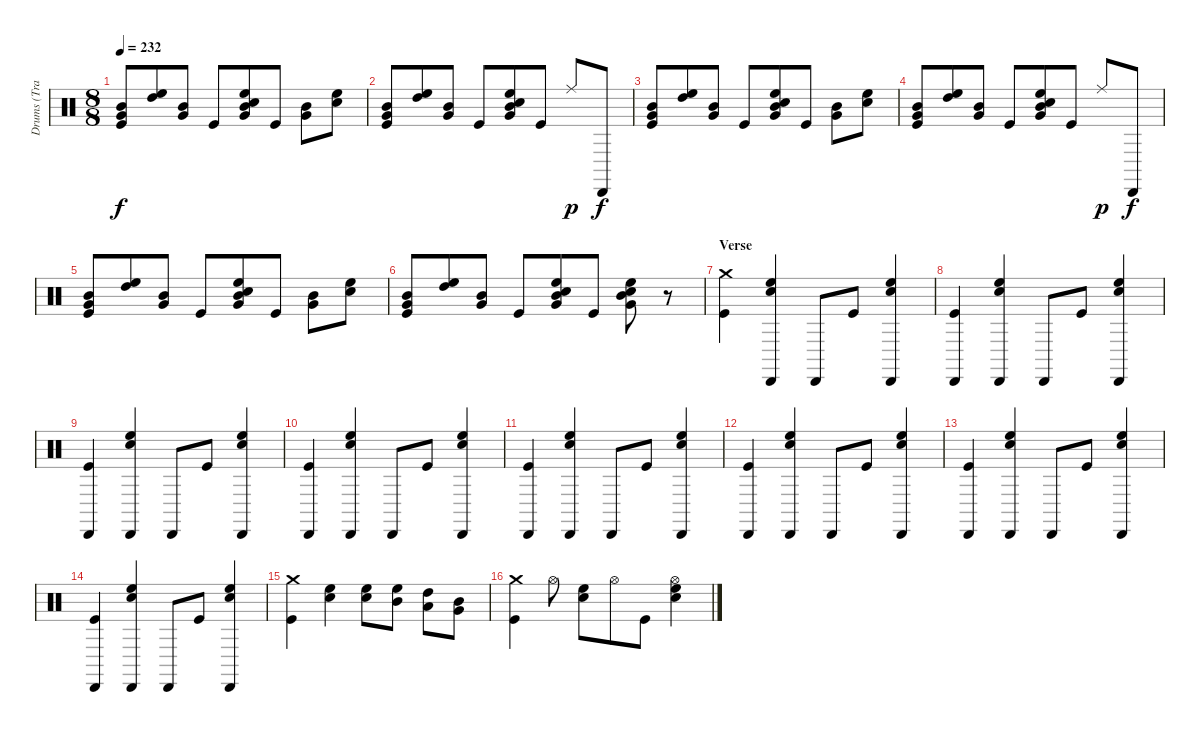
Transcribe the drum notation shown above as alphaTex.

\track ("Drums (Travis)" "Drums (Tra") {instrument percussion}
\staff {score}
\articulation defaults
\ts (8 8)
\tempo 232
\clef neutral
\ks c
("Mid Tom (hit)" "Very Low Tom (hit)" "Kick (hit)").8{dy f} ("High Tom (hit)" "High Floor Tom (hit)").8 ("Very Low Tom (hit)" "Mid Tom (hit)").8 "Kick (hit)".8 ("Mid Tom (hit)" "Very Low Tom (hit)" "High Floor Tom (hit)" "Electric Snare (hit)").8 "Kick (hit)".8 ("Mid Tom (hit)" "Very Low Tom (hit)").8 ("High Floor Tom (hit)" "Electric Snare (hit)").8 |
("Mid Tom (hit)" "Very Low Tom (hit)" "Kick (hit)").8 ("High Tom (hit)" "High Floor Tom (hit)").8 ("Very Low Tom (hit)" "Mid Tom (hit)").8 "Kick (hit)".8 ("Mid Tom (hit)" "Very Low Tom (hit)" "High Floor Tom (hit)" "Electric Snare (hit)").8 "Kick (hit)".8 "Ride (middle)".8{dy p} "Cabasa (hit)".8{dy f} |
("Mid Tom (hit)" "Very Low Tom (hit)" "Kick (hit)").8 ("High Tom (hit)" "High Floor Tom (hit)").8 ("Very Low Tom (hit)" "Mid Tom (hit)").8 "Kick (hit)".8 ("Mid Tom (hit)" "Very Low Tom (hit)" "High Floor Tom (hit)" "Electric Snare (hit)").8 "Kick (hit)".8 ("Mid Tom (hit)" "Very Low Tom (hit)").8 ("High Floor Tom (hit)" "Electric Snare (hit)").8 |
("Mid Tom (hit)" "Very Low Tom (hit)" "Kick (hit)").8 ("High Tom (hit)" "High Floor Tom (hit)").8 ("Very Low Tom (hit)" "Mid Tom (hit)").8 "Kick (hit)".8 ("Mid Tom (hit)" "Very Low Tom (hit)" "High Floor Tom (hit)" "Electric Snare (hit)").8 "Kick (hit)".8 "Ride (middle)".8{dy p} "Cabasa (hit)".8{dy f} |
("Mid Tom (hit)" "Very Low Tom (hit)" "Kick (hit)").8 ("High Tom (hit)" "High Floor Tom (hit)").8 ("Very Low Tom (hit)" "Mid Tom (hit)").8 "Kick (hit)".8 ("Mid Tom (hit)" "Very Low Tom (hit)" "High Floor Tom (hit)" "Electric Snare (hit)").8 "Kick (hit)".8 ("Mid Tom (hit)" "Very Low Tom (hit)").8 ("High Floor Tom (hit)" "Electric Snare (hit)").8 |
("Mid Tom (hit)" "Very Low Tom (hit)" "Kick (hit)").8 ("High Tom (hit)" "High Floor Tom (hit)").8 ("Very Low Tom (hit)" "Mid Tom (hit)").8 "Kick (hit)".8 ("Mid Tom (hit)" "Very Low Tom (hit)" "High Floor Tom (hit)" "Electric Snare (hit)").8 "Kick (hit)".8 ("Mid Tom (hit)" "Very Low Tom (hit)" "High Floor Tom (hit)" "Electric Snare (hit)").8 r.8 |
\section ("" "Verse")
("Crash medium (hit)" "Kick (hit)").4 ("Electric Snare (hit)" "High Floor Tom (hit)" "Cabasa (hit)").4 "Cabasa (hit)".8 "Kick (hit)".8 ("High Floor Tom (hit)" "Electric Snare (hit)" "Cabasa (hit)").4 |
("Kick (hit)" "Cabasa (hit)").4 ("Electric Snare (hit)" "High Floor Tom (hit)" "Cabasa (hit)").4 "Cabasa (hit)".8 "Kick (hit)".8 ("High Floor Tom (hit)" "Electric Snare (hit)" "Cabasa (hit)").4 |
("Kick (hit)" "Cabasa (hit)").4 ("Electric Snare (hit)" "High Floor Tom (hit)" "Cabasa (hit)").4 "Cabasa (hit)".8 "Kick (hit)".8 ("High Floor Tom (hit)" "Electric Snare (hit)" "Cabasa (hit)").4 |
("Kick (hit)" "Cabasa (hit)").4 ("Electric Snare (hit)" "High Floor Tom (hit)" "Cabasa (hit)").4 "Cabasa (hit)".8 "Kick (hit)".8 ("High Floor Tom (hit)" "Electric Snare (hit)" "Cabasa (hit)").4 |
("Kick (hit)" "Cabasa (hit)").4 ("Electric Snare (hit)" "High Floor Tom (hit)" "Cabasa (hit)").4 "Cabasa (hit)".8 "Kick (hit)".8 ("High Floor Tom (hit)" "Electric Snare (hit)" "Cabasa (hit)").4 |
("Kick (hit)" "Cabasa (hit)").4 ("Electric Snare (hit)" "High Floor Tom (hit)" "Cabasa (hit)").4 "Cabasa (hit)".8 "Kick (hit)".8 ("High Floor Tom (hit)" "Electric Snare (hit)" "Cabasa (hit)").4 |
("Kick (hit)" "Cabasa (hit)").4 ("Electric Snare (hit)" "High Floor Tom (hit)" "Cabasa (hit)").4 "Cabasa (hit)".8 "Kick (hit)".8 ("High Floor Tom (hit)" "Electric Snare (hit)" "Cabasa (hit)").4 |
("Kick (hit)" "Cabasa (hit)").4 ("Electric Snare (hit)" "High Floor Tom (hit)" "Cabasa (hit)").4 "Cabasa (hit)".8 "Kick (hit)".8 ("High Floor Tom (hit)" "Electric Snare (hit)" "Cabasa (hit)").4 |
("Crash medium (hit)" "Kick (hit)").4 ("High Floor Tom (hit)" "Electric Snare (hit)").4 ("Electric Snare (hit)" "High Floor Tom (hit)").8 ("Mid Tom (hit)" "High Floor Tom (hit)").8 ("High Tom (hit)" "Low Tom (hit)").8 ("Very Low Tom (hit)" "Mid Tom (hit)").8 |
("Kick (hit)" "Crash medium (hit)").4 "Hi-Hat (open)".8 ("High Floor Tom (hit)" "Electric Snare (hit)").8 "Hi-Hat (open)".8 "Kick (hit)".8 ("High Floor Tom (hit)" "Electric Snare (hit)" "Hi-Hat (open)").4
